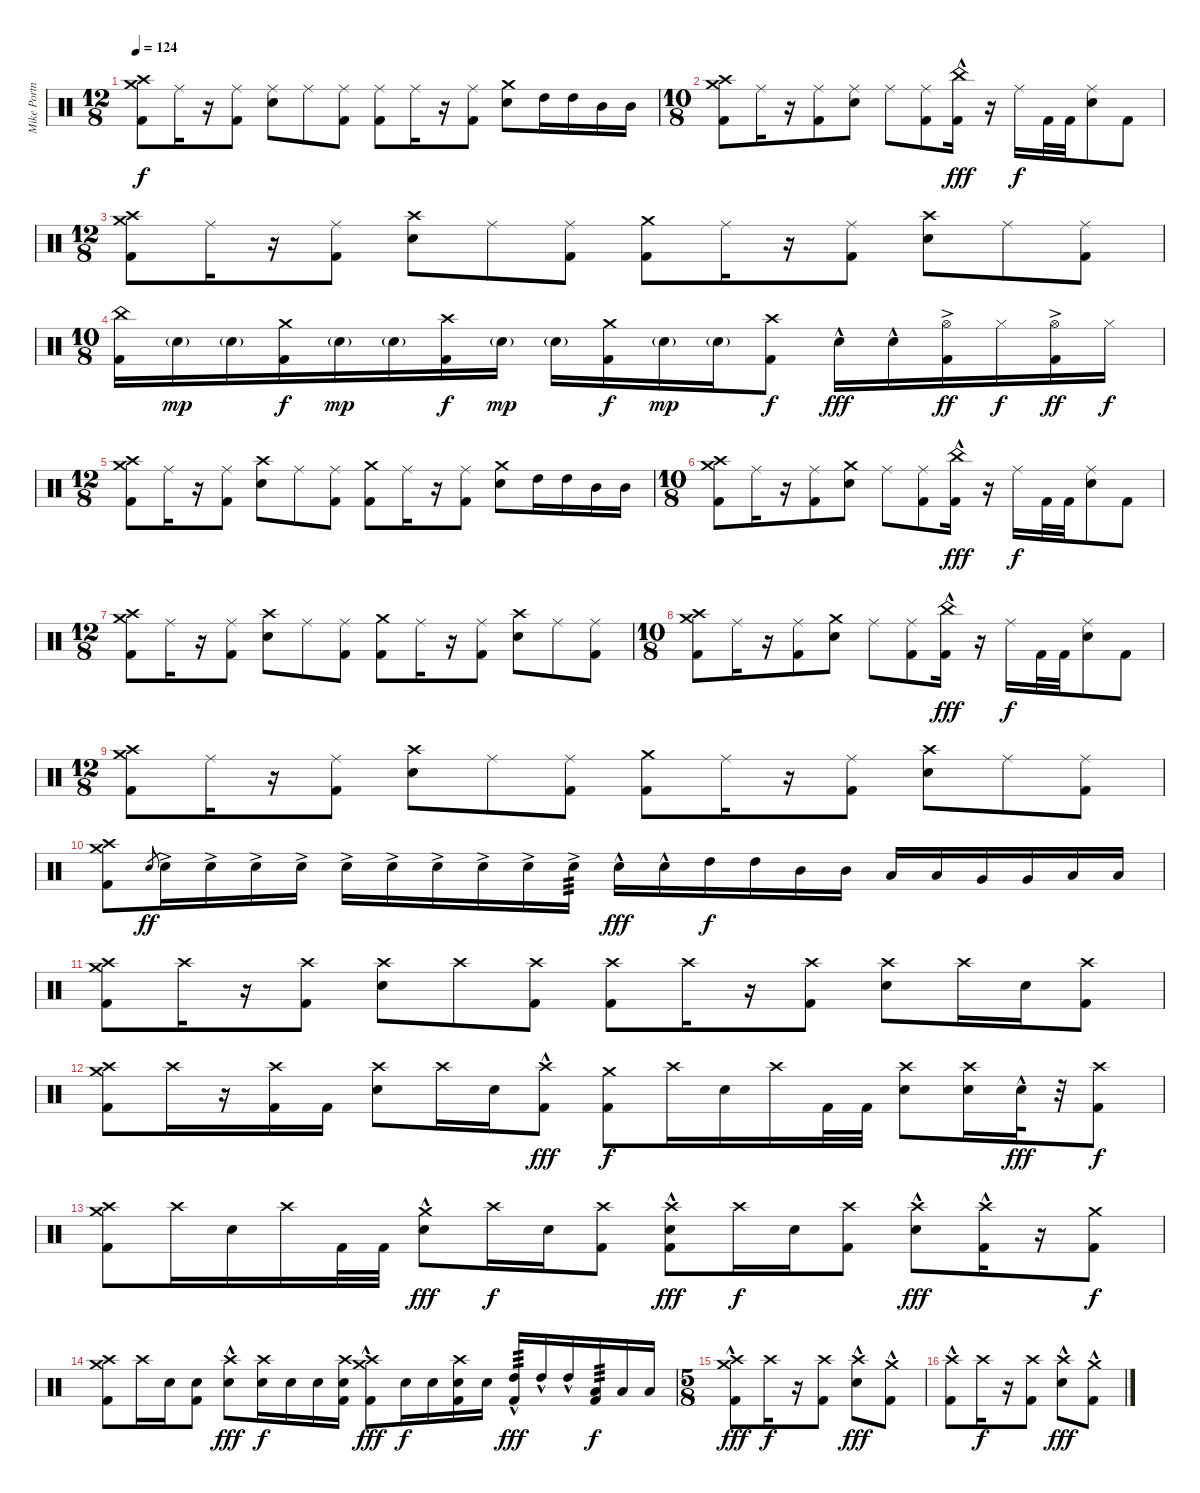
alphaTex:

\track ("Mike Portnoy Drums" "Mike Portn") {instrument percussion}
\staff {score}
\articulation defaults
\ts (12 8)
\tempo 124
\clef neutral
\ks c
("Crash medium (hit)" "Crash high (hit)" "Kick (hit) 2").8{dy f} "Ride (middle)".16 r.16 ("Ride (middle)" "Kick (hit) 2").8 ("Ride (middle)" "Electric Snare (hit)").8 "Ride (middle)".8 ("Ride (middle)" "Kick (hit) 2").8 ("Ride (middle)" "Kick (hit) 2").8 "Ride (middle)".16 r.16 ("Ride (middle)" "Kick (hit) 2").8 ("Crash medium (hit)" "Electric Snare (hit)").8 "High Tom (hit)".16 "High Tom (hit)".16 "Mid Tom (hit)".16 "Mid Tom (hit)".16 |
\ts (10 8)
("Crash medium (hit)" "Crash high (hit)" "Kick (hit) 2").8 "Ride (middle)".16 r.16 ("Ride (middle)" "Kick (hit) 2").8 ("Ride (middle)" "Electric Snare (hit)").8 "Ride (middle)".8 ("Ride (middle)" "Kick (hit) 2").8 ("China (hit)"{hac} "Kick (hit) 2").16{dy fff} r.16 "Ride (middle)".16{dy f} "Kick (hit) 2".32 "Kick (hit) 2".32 ("Ride (middle)" "Electric Snare (hit)").8 "Kick (hit) 2".8 |
\ts (12 8)
("Crash medium (hit)" "Crash high (hit)" "Kick (hit) 2").8 "Ride (middle)".16 r.16 ("Ride (middle)" "Kick (hit) 2").8 ("Crash high (hit)" "Electric Snare (hit)").8 "Ride (middle)".8 ("Ride (middle)" "Kick (hit) 2").8 ("Crash medium (hit)" "Kick (hit) 2").8 "Ride (middle)".16 r.16 ("Ride (middle)" "Kick (hit) 2").8 ("Crash high (hit)" "Electric Snare (hit)").8 "Ride (middle)".8 ("Ride (middle)" "Kick (hit) 2").8 |
\ts (10 8)
("China (hit)" "Kick (hit) 2").16 "Electric Snare (hit)"{g}.16{dy mp} "Electric Snare (hit)"{g}.16 ("Crash medium (hit)" "Kick (hit) 2").16{dy f} "Electric Snare (hit)"{g}.16{dy mp} "Electric Snare (hit)"{g}.16 ("Crash high (hit)" "Kick (hit) 2").16{dy f} "Electric Snare (hit)"{g}.16{dy mp} "Electric Snare (hit)"{g}.16 ("Crash medium (hit)" "Kick (hit) 2").16{dy f} "Electric Snare (hit)"{g}.16{dy mp} "Electric Snare (hit)"{g}.16 ("Crash high (hit)" "Kick (hit) 2").8{dy f} "Electric Snare (hit)"{hac}.16{dy fff} "Electric Snare (hit)"{hac}.16 ("Hi-Hat (open)"{ac} "Kick (hit) 2").16{dy ff} "Hi-Hat (closed)".16{dy f} ("Hi-Hat (open)"{ac} "Kick (hit) 2").16{dy ff} "Hi-Hat (closed)".16{dy f} |
\ts (12 8)
("Crash medium (hit)" "Crash high (hit)" "Kick (hit) 2").8 "Ride (middle)".16 r.16 ("Ride (middle)" "Kick (hit) 2").8 ("Crash high (hit)" "Electric Snare (hit)").8 "Ride (middle)".8 ("Ride (middle)" "Kick (hit) 2").8 ("Crash medium (hit)" "Kick (hit) 2").8 "Ride (middle)".16 r.16 ("Ride (middle)" "Kick (hit) 2").8 ("Crash medium (hit)" "Electric Snare (hit)").8 "High Tom (hit)".16 "High Tom (hit)".16 "Mid Tom (hit)".16 "Mid Tom (hit)".16 |
\ts (10 8)
("Crash medium (hit)" "Crash high (hit)" "Kick (hit) 2").8 "Ride (middle)".16 r.16 ("Ride (middle)" "Kick (hit) 2").8 ("Crash medium (hit)" "Electric Snare (hit)").8 "Ride (middle)".8 ("Ride (middle)" "Kick (hit) 2").8 ("China (hit)"{hac} "Kick (hit) 2").16{dy fff} r.16 "Ride (middle)".16{dy f} "Kick (hit) 2".32 "Kick (hit) 2".32 ("Ride (middle)" "Electric Snare (hit)").8 "Kick (hit) 2".8 |
\ts (12 8)
("Crash medium (hit)" "Crash high (hit)" "Kick (hit) 2").8 "Ride (middle)".16 r.16 ("Ride (middle)" "Kick (hit) 2").8 ("Crash high (hit)" "Electric Snare (hit)").8 "Ride (middle)".8 ("Ride (middle)" "Kick (hit) 2").8 ("Crash medium (hit)" "Kick (hit) 2").8 "Ride (middle)".16 r.16 ("Ride (middle)" "Kick (hit) 2").8 ("Crash high (hit)" "Electric Snare (hit)").8 "Ride (middle)".8 ("Ride (middle)" "Kick (hit) 2").8 |
\ts (10 8)
("Crash medium (hit)" "Crash high (hit)" "Kick (hit) 2").8 "Ride (middle)".16 r.16 ("Ride (middle)" "Kick (hit) 2").8 ("Crash medium (hit)" "Electric Snare (hit)").8 "Ride (middle)".8 ("Ride (middle)" "Kick (hit) 2").8 ("China (hit)"{hac} "Kick (hit) 2").16{dy fff} r.16 "Ride (middle)".16{dy f} "Kick (hit) 2".32 "Kick (hit) 2".32 ("Ride (middle)" "Electric Snare (hit)").8 "Kick (hit) 2".8 |
\ts (12 8)
("Crash medium (hit)" "Crash high (hit)" "Kick (hit) 2").8 "Ride (middle)".16 r.16 ("Ride (middle)" "Kick (hit) 2").8 ("Crash high (hit)" "Electric Snare (hit)").8 "Ride (middle)".8 ("Ride (middle)" "Kick (hit) 2").8 ("Crash medium (hit)" "Kick (hit) 2").8 "Ride (middle)".16 r.16 ("Ride (middle)" "Kick (hit) 2").8 ("Crash high (hit)" "Electric Snare (hit)").8 "Ride (middle)".8 ("Ride (middle)" "Kick (hit) 2").8 |
("Crash medium (hit)" "Crash high (hit)" "Kick (hit) 2").8 "Electric Snare (hit)".8{gr dy ff} "Electric Snare (hit)"{ac}.16 "Electric Snare (hit)"{ac}.16 "Electric Snare (hit)"{ac}.16 "Electric Snare (hit)"{ac}.16 "Electric Snare (hit)"{ac}.16 "Electric Snare (hit)"{ac}.16 "Electric Snare (hit)"{ac}.16 "Electric Snare (hit)"{ac}.16 "Electric Snare (hit)"{ac}.16 "Electric Snare (hit)"{ac}.16{tp 3} "Electric Snare (hit)"{hac}.16{dy fff} "Electric Snare (hit)"{hac}.16 "High Tom (hit)".16{dy f} "High Tom (hit)".16 "Mid Tom (hit)".16 "Mid Tom (hit)".16 "Low Tom (hit)".16 "Low Tom (hit)".16 "Very Low Tom (hit)".16 "Very Low Tom (hit)".16 "Low Floor Tom (hit)".16 "Low Floor Tom (hit)".16 |
("Crash medium (hit)" "Crash high (hit)" "Kick (hit) 2").8 "Crash high (hit)".16 r.16 ("Crash high (hit)" "Kick (hit) 2").8 ("Crash high (hit)" "Electric Snare (hit)").8 "Crash high (hit)".8 ("Crash high (hit)" "Kick (hit) 2").8 ("Crash high (hit)" "Kick (hit) 2").8 "Crash high (hit)".16 r.16 ("Crash high (hit)" "Kick (hit) 2").8 ("Crash high (hit)" "Electric Snare (hit)").8 "Crash high (hit)".16 "Electric Snare (hit)".16 ("Crash high (hit)" "Kick (hit) 2").8 |
("Crash medium (hit)" "Crash high (hit)" "Kick (hit) 2").8 "Crash high (hit)".16 r.16 ("Crash high (hit)" "Kick (hit) 2").16 "Kick (hit) 2".16 ("Crash high (hit)" "Electric Snare (hit)").8 "Crash high (hit)".16 "Electric Snare (hit)".16 ("Crash high (hit)"{hac} "Kick (hit) 2").8{dy fff} ("Crash medium (hit)" "Kick (hit) 2").8{dy f} "Crash high (hit)".16 "Electric Snare (hit)".16 "Crash high (hit)".16 "Kick (hit) 2".32 "Kick (hit) 2".32 ("Crash high (hit)" "Electric Snare (hit)").8 ("Crash high (hit)" "Electric Snare (hit)").16 "Electric Snare (hit)"{hac}.32{dy fff} r.32 ("Crash high (hit)" "Kick (hit) 2").8{dy f} |
("Crash medium (hit)" "Crash high (hit)" "Kick (hit) 2").8 "Crash high (hit)".16 "Electric Snare (hit)".16 "Crash high (hit)".16 "Kick (hit) 2".32 "Kick (hit) 2".32 ("Crash medium (hit)" "Electric Snare (hit)"{hac}).8{dy fff} "Crash high (hit)".16{dy f} "Electric Snare (hit)".16 ("Crash high (hit)" "Kick (hit) 2").8 ("Crash high (hit)"{hac} "Electric Snare (hit)"{hac} "Kick (hit) 2").8{dy fff} "Crash high (hit)".16{dy f} "Electric Snare (hit)".16 ("Crash high (hit)" "Kick (hit) 2").8 ("Crash high (hit)" "Electric Snare (hit)"{hac}).8{dy fff} ("Crash high (hit)"{hac} "Kick (hit) 2").16 r.16 ("Crash medium (hit)" "Kick (hit) 2").8{dy f} |
("Crash medium (hit)" "Crash high (hit)" "Kick (hit) 2").8 "Crash high (hit)".16 "Electric Snare (hit)".16 ("Electric Snare (hit)" "Kick (hit) 2").8 ("Crash high (hit)" "Electric Snare (hit)"{hac}).8{dy fff} ("Crash high (hit)" "Electric Snare (hit)").16{dy f} "Electric Snare (hit)".16 "Electric Snare (hit)".16 ("Crash high (hit)" "Electric Snare (hit)" "Kick (hit) 2").16 ("Crash medium (hit)"{hac} "Crash high (hit)"{hac} "Kick (hit) 2").8{dy fff} "Electric Snare (hit)".16{dy f} "Electric Snare (hit)".16 ("Crash high (hit)" "Electric Snare (hit)" "Kick (hit) 2").16 "Electric Snare (hit)".16 ("High Tom (hit)"{hac} "Kick (hit) 2").16{tp 3 dy fff} "High Tom (hit)"{hac}.16 "High Tom (hit)"{hac}.16 ("Low Tom (hit)" "Kick (hit) 2").16{tp 3 dy f} "Low Tom (hit)".16 "Low Tom (hit)".16 |
\ts (5 8)
("Crash medium (hit)"{hac} "Crash high (hit)"{hac} "Kick (hit) 2").8{dy fff} "Crash high (hit)".16{dy f} r.16 ("Crash high (hit)" "Kick (hit) 2").8 ("Crash high (hit)" "Electric Snare (hit)"{hac}).8{dy fff} ("Crash medium (hit)"{hac} "Kick (hit) 2").8 |
("Crash high (hit)"{hac} "Kick (hit) 2").8 "Crash high (hit)".16{dy f} r.16 ("Crash high (hit)" "Kick (hit) 2").8 ("Crash high (hit)" "Electric Snare (hit)"{hac}).8{dy fff} ("Crash medium (hit)"{hac} "Kick (hit) 2").8
